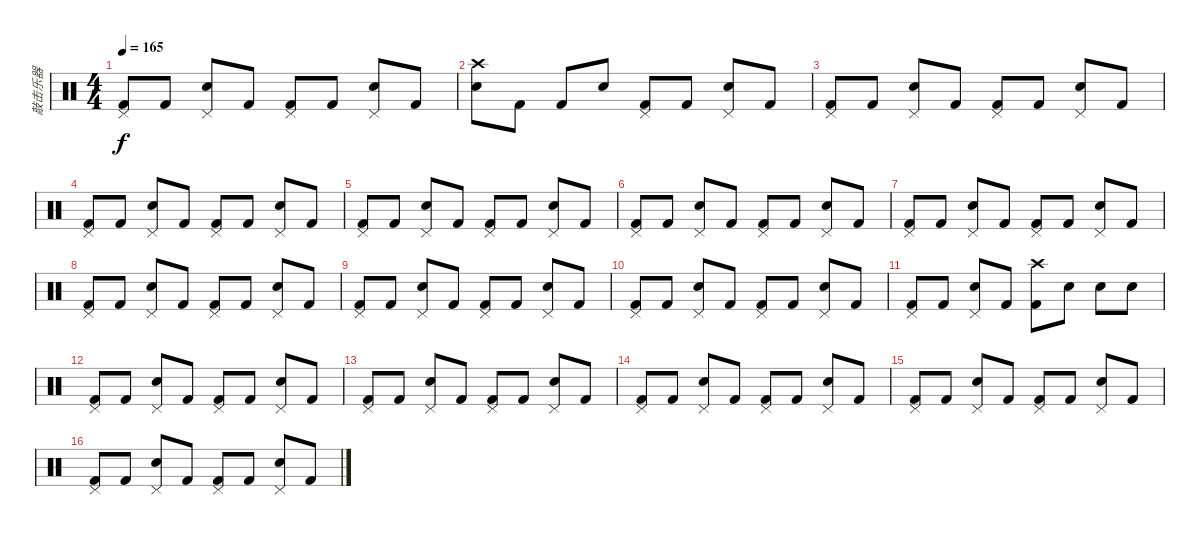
\track ("敲击乐器" "敲击乐器") {instrument percussion}
\staff {score}
\articulation defaults
\ts (4 4)
\tempo 165
\clef neutral
\ks c
("Kick (hit) 2" "Pedal Hi-Hat (hit)").8{dy f} "Kick (hit) 2".8 ("Snare (hit) 2" "Pedal Hi-Hat (hit)").8 "Kick (hit) 2".8 ("Kick (hit) 2" "Pedal Hi-Hat (hit)").8 "Kick (hit) 2".8 ("Snare (hit) 2" "Pedal Hi-Hat (hit)").8 "Kick (hit) 2".8 |
("Snare (hit) 2" "Crash high (hit)").8 "Kick (hit) 2".8 "Kick (hit) 2".8 "Snare (hit) 2".8 ("Kick (hit) 2" "Pedal Hi-Hat (hit)").8 "Kick (hit) 2".8 ("Snare (hit) 2" "Pedal Hi-Hat (hit)").8 "Kick (hit) 2".8 |
("Kick (hit) 2" "Pedal Hi-Hat (hit)").8 "Kick (hit) 2".8 ("Snare (hit) 2" "Pedal Hi-Hat (hit)").8 "Kick (hit) 2".8 ("Kick (hit) 2" "Pedal Hi-Hat (hit)").8 "Kick (hit) 2".8 ("Snare (hit) 2" "Pedal Hi-Hat (hit)").8 "Kick (hit) 2".8 |
("Kick (hit) 2" "Pedal Hi-Hat (hit)").8 "Kick (hit) 2".8 ("Snare (hit) 2" "Pedal Hi-Hat (hit)").8 "Kick (hit) 2".8 ("Kick (hit) 2" "Pedal Hi-Hat (hit)").8 "Kick (hit) 2".8 ("Snare (hit) 2" "Pedal Hi-Hat (hit)").8 "Kick (hit) 2".8 |
("Kick (hit) 2" "Pedal Hi-Hat (hit)").8 "Kick (hit) 2".8 ("Snare (hit) 2" "Pedal Hi-Hat (hit)").8 "Kick (hit) 2".8 ("Kick (hit) 2" "Pedal Hi-Hat (hit)").8 "Kick (hit) 2".8 ("Snare (hit) 2" "Pedal Hi-Hat (hit)").8 "Kick (hit) 2".8 |
("Kick (hit) 2" "Pedal Hi-Hat (hit)").8 "Kick (hit) 2".8 ("Snare (hit) 2" "Pedal Hi-Hat (hit)").8 "Kick (hit) 2".8 ("Kick (hit) 2" "Pedal Hi-Hat (hit)").8 "Kick (hit) 2".8 ("Snare (hit) 2" "Pedal Hi-Hat (hit)").8 "Kick (hit) 2".8 |
("Kick (hit) 2" "Pedal Hi-Hat (hit)").8 "Kick (hit) 2".8 ("Snare (hit) 2" "Pedal Hi-Hat (hit)").8 "Kick (hit) 2".8 ("Kick (hit) 2" "Pedal Hi-Hat (hit)").8 "Kick (hit) 2".8 ("Snare (hit) 2" "Pedal Hi-Hat (hit)").8 "Kick (hit) 2".8 |
("Kick (hit) 2" "Pedal Hi-Hat (hit)").8 "Kick (hit) 2".8 ("Snare (hit) 2" "Pedal Hi-Hat (hit)").8 "Kick (hit) 2".8 ("Kick (hit) 2" "Pedal Hi-Hat (hit)").8 "Kick (hit) 2".8 ("Snare (hit) 2" "Pedal Hi-Hat (hit)").8 "Kick (hit) 2".8 |
("Kick (hit) 2" "Pedal Hi-Hat (hit)").8 "Kick (hit) 2".8 ("Snare (hit) 2" "Pedal Hi-Hat (hit)").8 "Kick (hit) 2".8 ("Kick (hit) 2" "Pedal Hi-Hat (hit)").8 "Kick (hit) 2".8 ("Snare (hit) 2" "Pedal Hi-Hat (hit)").8 "Kick (hit) 2".8 |
("Kick (hit) 2" "Pedal Hi-Hat (hit)").8 "Kick (hit) 2".8 ("Snare (hit) 2" "Pedal Hi-Hat (hit)").8 "Kick (hit) 2".8 ("Kick (hit) 2" "Pedal Hi-Hat (hit)").8 "Kick (hit) 2".8 ("Snare (hit) 2" "Pedal Hi-Hat (hit)").8 "Kick (hit) 2".8 |
("Kick (hit) 2" "Pedal Hi-Hat (hit)").8 "Kick (hit) 2".8 ("Snare (hit) 2" "Pedal Hi-Hat (hit)").8 "Kick (hit) 2".8 ("Kick (hit) 2" "Crash high (hit)").8 "Snare (hit) 2".8 "Snare (hit) 2".8 "Snare (hit) 2".8 |
("Kick (hit) 2" "Pedal Hi-Hat (hit)").8 "Kick (hit) 2".8 ("Snare (hit) 2" "Pedal Hi-Hat (hit)").8 "Kick (hit) 2".8 ("Kick (hit) 2" "Pedal Hi-Hat (hit)").8 "Kick (hit) 2".8 ("Snare (hit) 2" "Pedal Hi-Hat (hit)").8 "Kick (hit) 2".8 |
("Kick (hit) 2" "Pedal Hi-Hat (hit)").8 "Kick (hit) 2".8 ("Snare (hit) 2" "Pedal Hi-Hat (hit)").8 "Kick (hit) 2".8 ("Kick (hit) 2" "Pedal Hi-Hat (hit)").8 "Kick (hit) 2".8 ("Snare (hit) 2" "Pedal Hi-Hat (hit)").8 "Kick (hit) 2".8 |
("Kick (hit) 2" "Pedal Hi-Hat (hit)").8 "Kick (hit) 2".8 ("Snare (hit) 2" "Pedal Hi-Hat (hit)").8 "Kick (hit) 2".8 ("Kick (hit) 2" "Pedal Hi-Hat (hit)").8 "Kick (hit) 2".8 ("Snare (hit) 2" "Pedal Hi-Hat (hit)").8 "Kick (hit) 2".8 |
("Kick (hit) 2" "Pedal Hi-Hat (hit)").8 "Kick (hit) 2".8 ("Snare (hit) 2" "Pedal Hi-Hat (hit)").8 "Kick (hit) 2".8 ("Kick (hit) 2" "Pedal Hi-Hat (hit)").8 "Kick (hit) 2".8 ("Snare (hit) 2" "Pedal Hi-Hat (hit)").8 "Kick (hit) 2".8 |
("Kick (hit) 2" "Pedal Hi-Hat (hit)").8 "Kick (hit) 2".8 ("Snare (hit) 2" "Pedal Hi-Hat (hit)").8 "Kick (hit) 2".8 ("Kick (hit) 2" "Pedal Hi-Hat (hit)").8 "Kick (hit) 2".8 ("Snare (hit) 2" "Pedal Hi-Hat (hit)").8 "Kick (hit) 2".8
